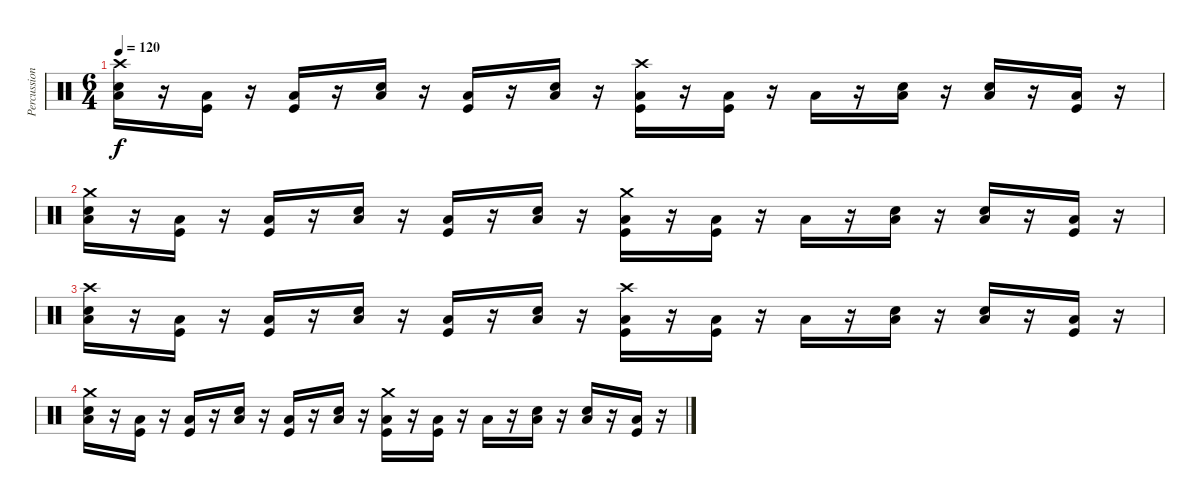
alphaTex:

\track ("Percussion" "Percussion") {instrument percussion}
\staff {score}
\articulation defaults
\ts (6 4)
\tempo 120
\clef neutral
\ks c
("Crash high (hit)" "Low Floor Tom (hit)" "Snare (hit) 2").16{dy f} r.16 ("Low Floor Tom (hit)" "Kick (hit)").16 r.16 ("Low Floor Tom (hit)" "Kick (hit)").16 r.16 ("Low Floor Tom (hit)" "Snare (hit) 2").16 r.16 ("Low Floor Tom (hit)" "Kick (hit)").16 r.16 ("Low Floor Tom (hit)" "Snare (hit) 2").16 r.16 ("Crash high (hit)" "Low Floor Tom (hit)" "Kick (hit)").16 r.16 ("Low Floor Tom (hit)" "Kick (hit)").16 r.16 "Low Floor Tom (hit)".16 r.16 ("Low Floor Tom (hit)" "Snare (hit) 2").16 r.16 ("Low Floor Tom (hit)" "Snare (hit) 2").16 r.16 ("Low Floor Tom (hit)" "Kick (hit)").16 r.16 |
("Crash medium (hit)" "Low Floor Tom (hit)" "Snare (hit) 2").16 r.16 ("Low Floor Tom (hit)" "Kick (hit)").16 r.16 ("Low Floor Tom (hit)" "Kick (hit)").16 r.16 ("Low Floor Tom (hit)" "Snare (hit) 2").16 r.16 ("Low Floor Tom (hit)" "Kick (hit)").16 r.16 ("Low Floor Tom (hit)" "Snare (hit) 2").16 r.16 ("Crash medium (hit)" "Low Floor Tom (hit)" "Kick (hit)").16 r.16 ("Low Floor Tom (hit)" "Kick (hit)").16 r.16 "Low Floor Tom (hit)".16 r.16 ("Low Floor Tom (hit)" "Snare (hit) 2").16 r.16 ("Low Floor Tom (hit)" "Snare (hit) 2").16 r.16 ("Low Floor Tom (hit)" "Kick (hit)").16 r.16 |
("Crash high (hit)" "Low Floor Tom (hit)" "Snare (hit) 2").16 r.16 ("Low Floor Tom (hit)" "Kick (hit)").16 r.16 ("Low Floor Tom (hit)" "Kick (hit)").16 r.16 ("Low Floor Tom (hit)" "Snare (hit) 2").16 r.16 ("Low Floor Tom (hit)" "Kick (hit)").16 r.16 ("Low Floor Tom (hit)" "Snare (hit) 2").16 r.16 ("Crash high (hit)" "Low Floor Tom (hit)" "Kick (hit)").16 r.16 ("Low Floor Tom (hit)" "Kick (hit)").16 r.16 "Low Floor Tom (hit)".16 r.16 ("Low Floor Tom (hit)" "Snare (hit) 2").16 r.16 ("Low Floor Tom (hit)" "Snare (hit) 2").16 r.16 ("Low Floor Tom (hit)" "Kick (hit)").16 r.16 |
("Crash medium (hit)" "Low Floor Tom (hit)" "Snare (hit) 2").16 r.16 ("Low Floor Tom (hit)" "Kick (hit)").16 r.16 ("Low Floor Tom (hit)" "Kick (hit)").16 r.16 ("Low Floor Tom (hit)" "Snare (hit) 2").16 r.16 ("Low Floor Tom (hit)" "Kick (hit)").16 r.16 ("Low Floor Tom (hit)" "Snare (hit) 2").16 r.16 ("Crash medium (hit)" "Low Floor Tom (hit)" "Kick (hit)").16 r.16 ("Low Floor Tom (hit)" "Kick (hit)").16 r.16 "Low Floor Tom (hit)".16 r.16 ("Low Floor Tom (hit)" "Snare (hit) 2").16 r.16 ("Low Floor Tom (hit)" "Snare (hit) 2").16 r.16 ("Low Floor Tom (hit)" "Kick (hit)").16 r.16
